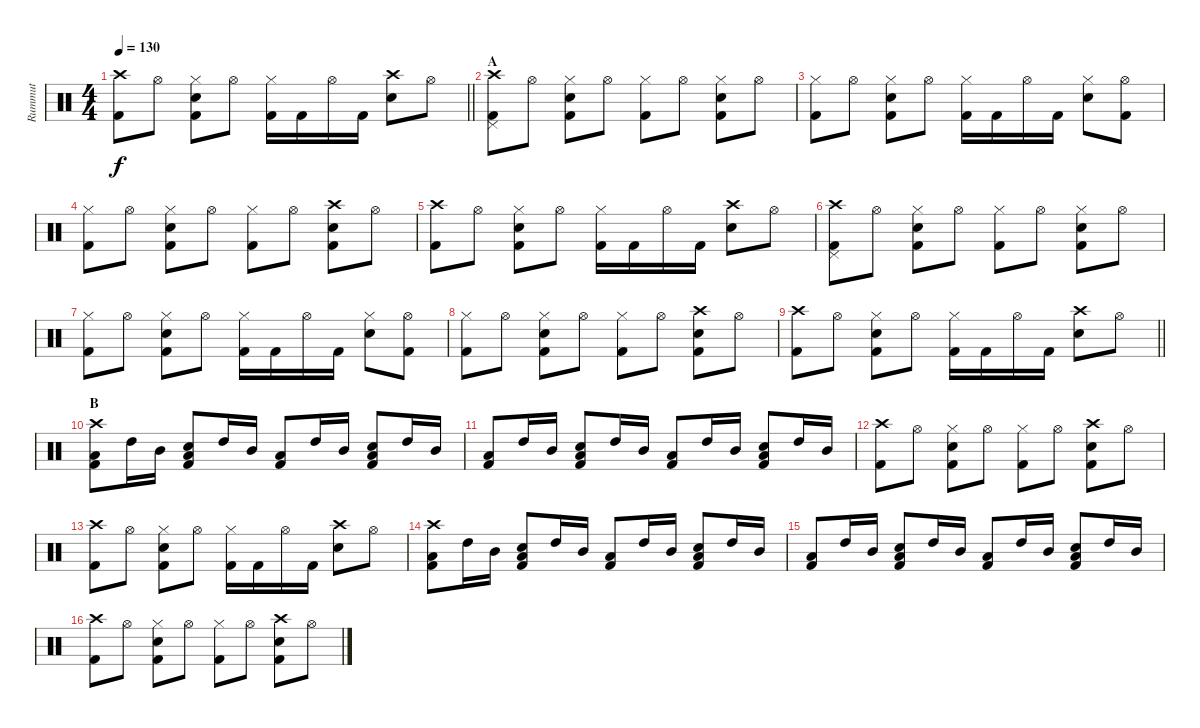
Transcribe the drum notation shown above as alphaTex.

\track ("Rummut" "Rummut") {instrument percussion}
\staff {score}
\articulation defaults
\ts (4 4)
\tempo 130
\clef neutral
\barLineRight lightlight
\ks c
("Crash high (hit)" "Kick (hit) 2").8{dy f} "Hi-Hat (open)".8 ("Hi-Hat (closed)" "Snare (hit) 2" "Kick (hit) 2").8 "Hi-Hat (open)".8 ("Hi-Hat (closed)" "Kick (hit) 2").16 "Kick (hit) 2".16 "Hi-Hat (open)".16 "Kick (hit) 2".16 ("Crash high (hit)" "Snare (hit) 2").8 "Hi-Hat (open)".8 |
\section ("" "A")
("Crash high (hit)" "Pedal Hi-Hat (hit)" "Kick (hit) 2").8 "Hi-Hat (open)".8 ("Hi-Hat (closed)" "Snare (hit) 2" "Kick (hit) 2").8 "Hi-Hat (open)".8 ("Hi-Hat (closed)" "Kick (hit) 2").8 "Hi-Hat (open)".8 ("Hi-Hat (closed)" "Snare (hit) 2" "Kick (hit) 2").8 "Hi-Hat (open)".8 |
("Hi-Hat (closed)" "Kick (hit) 2").8 "Hi-Hat (open)".8 ("Hi-Hat (closed)" "Snare (hit) 2" "Kick (hit) 2").8 "Hi-Hat (open)".8 ("Hi-Hat (closed)" "Kick (hit) 2").16 "Kick (hit) 2".16 "Hi-Hat (open)".16 "Kick (hit) 2".16 ("Hi-Hat (closed)" "Snare (hit) 2").8 ("Hi-Hat (open)" "Kick (hit) 2").8 |
("Hi-Hat (closed)" "Kick (hit) 2").8 "Hi-Hat (open)".8 ("Hi-Hat (closed)" "Snare (hit) 2" "Kick (hit) 2").8 "Hi-Hat (open)".8 ("Hi-Hat (closed)" "Kick (hit) 2").8 "Hi-Hat (open)".8 ("Crash high (hit)" "Snare (hit) 2" "Kick (hit) 2").8 "Hi-Hat (open)".8 |
("Crash high (hit)" "Kick (hit) 2").8 "Hi-Hat (open)".8 ("Hi-Hat (closed)" "Snare (hit) 2" "Kick (hit) 2").8 "Hi-Hat (open)".8 ("Hi-Hat (closed)" "Kick (hit) 2").16 "Kick (hit) 2".16 "Hi-Hat (open)".16 "Kick (hit) 2".16 ("Crash high (hit)" "Snare (hit) 2").8 "Hi-Hat (open)".8 |
("Crash high (hit)" "Pedal Hi-Hat (hit)" "Kick (hit) 2").8 "Hi-Hat (open)".8 ("Hi-Hat (closed)" "Snare (hit) 2" "Kick (hit) 2").8 "Hi-Hat (open)".8 ("Hi-Hat (closed)" "Kick (hit) 2").8 "Hi-Hat (open)".8 ("Hi-Hat (closed)" "Snare (hit) 2" "Kick (hit) 2").8 "Hi-Hat (open)".8 |
("Hi-Hat (closed)" "Kick (hit) 2").8 "Hi-Hat (open)".8 ("Hi-Hat (closed)" "Snare (hit) 2" "Kick (hit) 2").8 "Hi-Hat (open)".8 ("Hi-Hat (closed)" "Kick (hit) 2").16 "Kick (hit) 2".16 "Hi-Hat (open)".16 "Kick (hit) 2".16 ("Hi-Hat (closed)" "Snare (hit) 2").8 ("Hi-Hat (open)" "Kick (hit) 2").8 |
("Hi-Hat (closed)" "Kick (hit) 2").8 "Hi-Hat (open)".8 ("Hi-Hat (closed)" "Snare (hit) 2" "Kick (hit) 2").8 "Hi-Hat (open)".8 ("Hi-Hat (closed)" "Kick (hit) 2").8 "Hi-Hat (open)".8 ("Crash high (hit)" "Snare (hit) 2" "Kick (hit) 2").8 "Hi-Hat (open)".8 |
\barLineRight lightlight
("Crash high (hit)" "Kick (hit) 2").8 "Hi-Hat (open)".8 ("Hi-Hat (closed)" "Snare (hit) 2" "Kick (hit) 2").8 "Hi-Hat (open)".8 ("Hi-Hat (closed)" "Kick (hit) 2").16 "Kick (hit) 2".16 "Hi-Hat (open)".16 "Kick (hit) 2".16 ("Crash high (hit)" "Snare (hit) 2").8 "Hi-Hat (open)".8 |
\section ("" "B")
("Crash high (hit)" "Low Tom (hit)" "Kick (hit) 2").8 "High Tom (hit)".16 "Mid Tom (hit)".16 ("Snare (hit) 2" "Low Tom (hit)" "Kick (hit) 2").8 "High Tom (hit)".16 "Mid Tom (hit)".16 ("Low Tom (hit)" "Kick (hit) 2").8 "High Tom (hit)".16 "Mid Tom (hit)".16 ("Snare (hit) 2" "Low Tom (hit)" "Kick (hit) 2").8 "High Tom (hit)".16 "Mid Tom (hit)".16 |
("Low Tom (hit)" "Kick (hit) 2").8 "High Tom (hit)".16 "Mid Tom (hit)".16 ("Snare (hit) 2" "Low Tom (hit)" "Kick (hit) 2").8 "High Tom (hit)".16 "Mid Tom (hit)".16 ("Low Tom (hit)" "Kick (hit) 2").8 "High Tom (hit)".16 "Mid Tom (hit)".16 ("Snare (hit) 2" "Low Tom (hit)" "Kick (hit) 2").8 "High Tom (hit)".16 "Mid Tom (hit)".16 |
("Crash high (hit)" "Kick (hit) 2").8 "Hi-Hat (open)".8 ("Hi-Hat (closed)" "Snare (hit) 2" "Kick (hit) 2").8 "Hi-Hat (open)".8 ("Hi-Hat (closed)" "Kick (hit) 2").8 "Hi-Hat (open)".8 ("Crash high (hit)" "Snare (hit) 2" "Kick (hit) 2").8 "Hi-Hat (open)".8 |
("Crash high (hit)" "Kick (hit) 2").8 "Hi-Hat (open)".8 ("Hi-Hat (closed)" "Snare (hit) 2" "Kick (hit) 2").8 "Hi-Hat (open)".8 ("Hi-Hat (closed)" "Kick (hit) 2").16 "Kick (hit) 2".16 "Hi-Hat (open)".16 "Kick (hit) 2".16 ("Crash high (hit)" "Snare (hit) 2").8 "Hi-Hat (open)".8 |
("Crash high (hit)" "Low Tom (hit)" "Kick (hit) 2").8 "High Tom (hit)".16 "Mid Tom (hit)".16 ("Snare (hit) 2" "Low Tom (hit)" "Kick (hit) 2").8 "High Tom (hit)".16 "Mid Tom (hit)".16 ("Low Tom (hit)" "Kick (hit) 2").8 "High Tom (hit)".16 "Mid Tom (hit)".16 ("Snare (hit) 2" "Low Tom (hit)" "Kick (hit) 2").8 "High Tom (hit)".16 "Mid Tom (hit)".16 |
("Low Tom (hit)" "Kick (hit) 2").8 "High Tom (hit)".16 "Mid Tom (hit)".16 ("Snare (hit) 2" "Low Tom (hit)" "Kick (hit) 2").8 "High Tom (hit)".16 "Mid Tom (hit)".16 ("Low Tom (hit)" "Kick (hit) 2").8 "High Tom (hit)".16 "Mid Tom (hit)".16 ("Snare (hit) 2" "Low Tom (hit)" "Kick (hit) 2").8 "High Tom (hit)".16 "Mid Tom (hit)".16 |
("Crash high (hit)" "Kick (hit) 2").8 "Hi-Hat (open)".8 ("Hi-Hat (closed)" "Snare (hit) 2" "Kick (hit) 2").8 "Hi-Hat (open)".8 ("Hi-Hat (closed)" "Kick (hit) 2").8 "Hi-Hat (open)".8 ("Crash high (hit)" "Snare (hit) 2" "Kick (hit) 2").8 "Hi-Hat (open)".8
